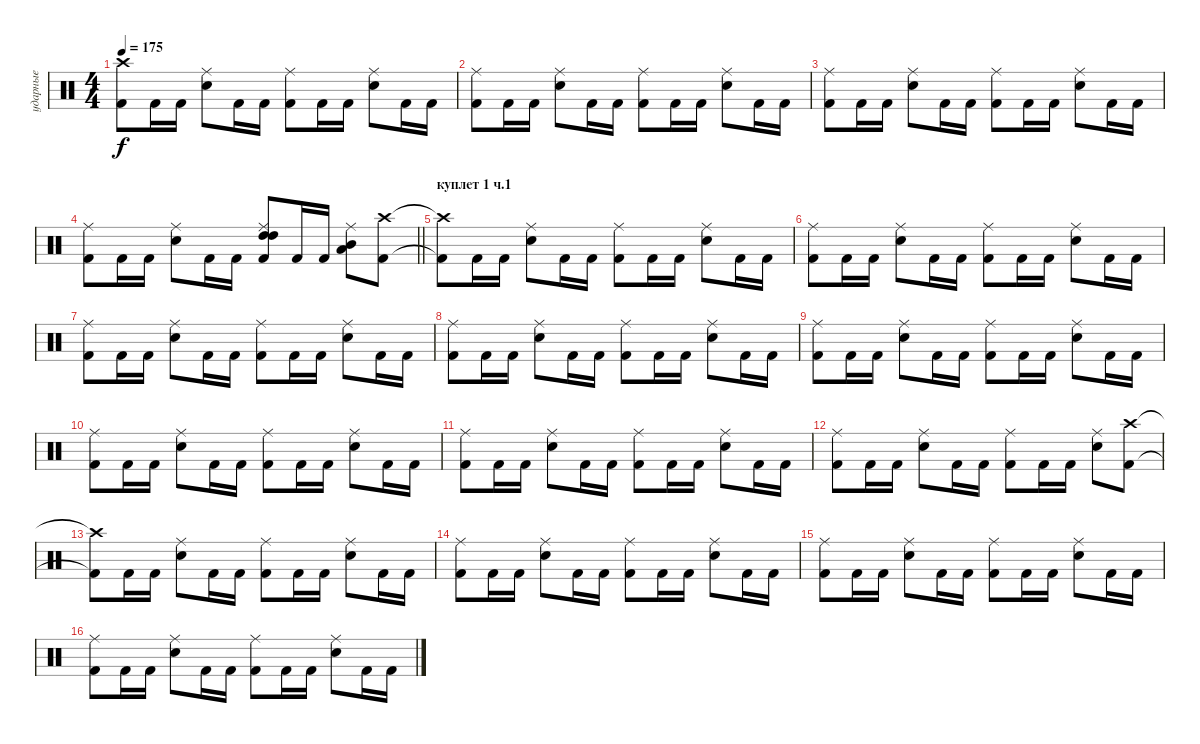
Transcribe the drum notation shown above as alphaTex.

\track ("ударные" "ударные") {instrument percussion}
\staff {score}
\articulation defaults
\ts (4 4)
\tempo 175
\clef neutral
\ks c
("Kick (hit) 2"{t} "Crash high (hit)"{t}).8{dy f} "Kick (hit) 2".16 "Kick (hit) 2".16 ("Snare (hit) 2" "Ride (middle)").8 "Kick (hit) 2".16 "Kick (hit) 2".16 ("Kick (hit) 2" "Ride (middle)").8 "Kick (hit) 2".16 "Kick (hit) 2".16 ("Snare (hit) 2" "Ride (middle)").8 "Kick (hit) 2".16 "Kick (hit) 2".16 |
("Kick (hit) 2" "Ride (middle)").8 "Kick (hit) 2".16 "Kick (hit) 2".16 ("Snare (hit) 2" "Ride (middle)").8 "Kick (hit) 2".16 "Kick (hit) 2".16 ("Kick (hit) 2" "Ride (middle)").8 "Kick (hit) 2".16 "Kick (hit) 2".16 ("Snare (hit) 2" "Ride (middle)").8 "Kick (hit) 2".16 "Kick (hit) 2".16 |
("Kick (hit) 2" "Ride (middle)").8 "Kick (hit) 2".16 "Kick (hit) 2".16 ("Snare (hit) 2" "Ride (middle)").8 "Kick (hit) 2".16 "Kick (hit) 2".16 ("Kick (hit) 2" "Ride (middle)").8 "Kick (hit) 2".16 "Kick (hit) 2".16 ("Snare (hit) 2" "Ride (middle)").8 "Kick (hit) 2".16 "Kick (hit) 2".16 |
\barLineRight lightlight
("Kick (hit) 2" "Ride (middle)").8 "Kick (hit) 2".16 "Kick (hit) 2".16 ("Snare (hit) 2" "Ride (middle)").8 "Kick (hit) 2".16 "Kick (hit) 2".16 ("Kick (hit) 2" "High Tom (hit)" "Ride (middle)" "High Tom (hit)").8 "Kick (hit) 2".16 "Kick (hit) 2".16 ("Mid Tom (hit)" "Ride (middle)" "Low Tom (hit)").8 ("Kick (hit) 2" "Crash high (hit)").8 |
\section ("" "куплет 1 ч.1")
("Kick (hit) 2"{t} "Crash high (hit)"{t}).8 "Kick (hit) 2".16 "Kick (hit) 2".16 ("Snare (hit) 2" "Ride (middle)").8 "Kick (hit) 2".16 "Kick (hit) 2".16 ("Kick (hit) 2" "Ride (middle)").8 "Kick (hit) 2".16 "Kick (hit) 2".16 ("Snare (hit) 2" "Ride (middle)").8 "Kick (hit) 2".16 "Kick (hit) 2".16 |
("Kick (hit) 2" "Ride (middle)").8 "Kick (hit) 2".16 "Kick (hit) 2".16 ("Snare (hit) 2" "Ride (middle)").8 "Kick (hit) 2".16 "Kick (hit) 2".16 ("Kick (hit) 2" "Ride (middle)").8 "Kick (hit) 2".16 "Kick (hit) 2".16 ("Snare (hit) 2" "Ride (middle)").8 "Kick (hit) 2".16 "Kick (hit) 2".16 |
("Kick (hit) 2" "Ride (middle)").8 "Kick (hit) 2".16 "Kick (hit) 2".16 ("Snare (hit) 2" "Ride (middle)").8 "Kick (hit) 2".16 "Kick (hit) 2".16 ("Kick (hit) 2" "Ride (middle)").8 "Kick (hit) 2".16 "Kick (hit) 2".16 ("Snare (hit) 2" "Ride (middle)").8 "Kick (hit) 2".16 "Kick (hit) 2".16 |
("Kick (hit) 2" "Ride (middle)").8 "Kick (hit) 2".16 "Kick (hit) 2".16 ("Snare (hit) 2" "Ride (middle)").8 "Kick (hit) 2".16 "Kick (hit) 2".16 ("Kick (hit) 2" "Ride (middle)").8 "Kick (hit) 2".16 "Kick (hit) 2".16 ("Snare (hit) 2" "Ride (middle)").8 "Kick (hit) 2".16 "Kick (hit) 2".16 |
("Kick (hit) 2" "Ride (middle)").8 "Kick (hit) 2".16 "Kick (hit) 2".16 ("Snare (hit) 2" "Ride (middle)").8 "Kick (hit) 2".16 "Kick (hit) 2".16 ("Kick (hit) 2" "Ride (middle)").8 "Kick (hit) 2".16 "Kick (hit) 2".16 ("Snare (hit) 2" "Ride (middle)").8 "Kick (hit) 2".16 "Kick (hit) 2".16 |
("Kick (hit) 2" "Ride (middle)").8 "Kick (hit) 2".16 "Kick (hit) 2".16 ("Snare (hit) 2" "Ride (middle)").8 "Kick (hit) 2".16 "Kick (hit) 2".16 ("Kick (hit) 2" "Ride (middle)").8 "Kick (hit) 2".16 "Kick (hit) 2".16 ("Snare (hit) 2" "Ride (middle)").8 "Kick (hit) 2".16 "Kick (hit) 2".16 |
("Kick (hit) 2" "Ride (middle)").8 "Kick (hit) 2".16 "Kick (hit) 2".16 ("Snare (hit) 2" "Ride (middle)").8 "Kick (hit) 2".16 "Kick (hit) 2".16 ("Kick (hit) 2" "Ride (middle)").8 "Kick (hit) 2".16 "Kick (hit) 2".16 ("Snare (hit) 2" "Ride (middle)").8 "Kick (hit) 2".16 "Kick (hit) 2".16 |
("Kick (hit) 2" "Ride (middle)").8 "Kick (hit) 2".16 "Kick (hit) 2".16 ("Snare (hit) 2" "Ride (middle)").8 "Kick (hit) 2".16 "Kick (hit) 2".16 ("Kick (hit) 2" "Ride (middle)").8 "Kick (hit) 2".16 "Kick (hit) 2".16 ("Snare (hit) 2" "Ride (middle)").8 ("Kick (hit) 2" "Crash high (hit)").8 |
("Kick (hit) 2"{t} "Crash high (hit)"{t}).8 "Kick (hit) 2".16 "Kick (hit) 2".16 ("Snare (hit) 2" "Ride (middle)").8 "Kick (hit) 2".16 "Kick (hit) 2".16 ("Kick (hit) 2" "Ride (middle)").8 "Kick (hit) 2".16 "Kick (hit) 2".16 ("Snare (hit) 2" "Ride (middle)").8 "Kick (hit) 2".16 "Kick (hit) 2".16 |
("Kick (hit) 2" "Ride (middle)").8 "Kick (hit) 2".16 "Kick (hit) 2".16 ("Snare (hit) 2" "Ride (middle)").8 "Kick (hit) 2".16 "Kick (hit) 2".16 ("Kick (hit) 2" "Ride (middle)").8 "Kick (hit) 2".16 "Kick (hit) 2".16 ("Snare (hit) 2" "Ride (middle)").8 "Kick (hit) 2".16 "Kick (hit) 2".16 |
("Kick (hit) 2" "Ride (middle)").8 "Kick (hit) 2".16 "Kick (hit) 2".16 ("Snare (hit) 2" "Ride (middle)").8 "Kick (hit) 2".16 "Kick (hit) 2".16 ("Kick (hit) 2" "Ride (middle)").8 "Kick (hit) 2".16 "Kick (hit) 2".16 ("Snare (hit) 2" "Ride (middle)").8 "Kick (hit) 2".16 "Kick (hit) 2".16 |
("Kick (hit) 2" "Ride (middle)").8 "Kick (hit) 2".16 "Kick (hit) 2".16 ("Snare (hit) 2" "Ride (middle)").8 "Kick (hit) 2".16 "Kick (hit) 2".16 ("Kick (hit) 2" "Ride (middle)").8 "Kick (hit) 2".16 "Kick (hit) 2".16 ("Snare (hit) 2" "Ride (middle)").8 "Kick (hit) 2".16 "Kick (hit) 2".16
